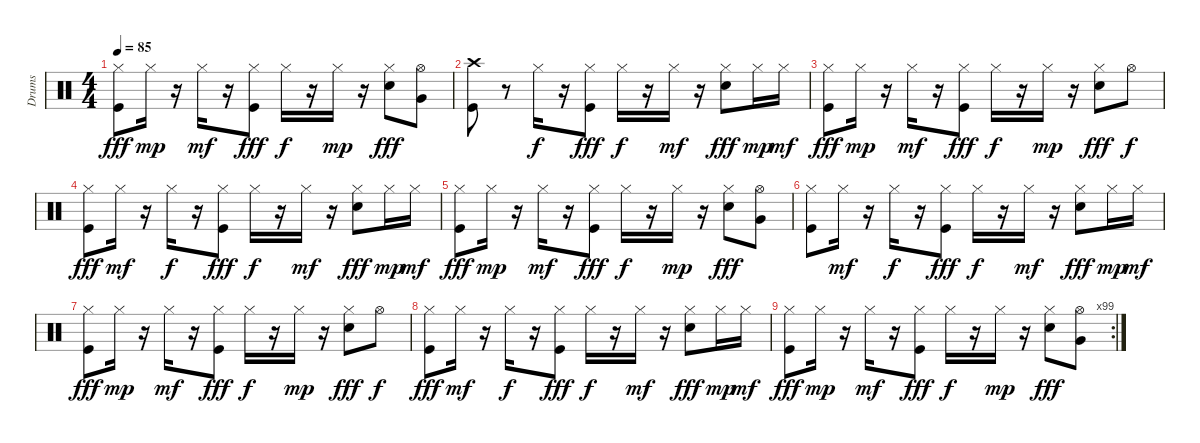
\track ("Drums" "Drums") {instrument percussion}
\staff {score}
\articulation defaults
\ts (4 4)
\tempo 85
\clef neutral
\ks c
("Hi-Hat (closed)" "Kick (hit)").8{dy fff} "Hi-Hat (closed)".16{dy mp} r.16 "Hi-Hat (closed)".16{dy mf} r.16 ("Hi-Hat (closed)" "Kick (hit)").8{dy fff} "Hi-Hat (closed)".16{dy f} r.16 "Hi-Hat (closed)".16{dy mp} r.16 ("Hi-Hat (closed)" "Electric Snare (hit)").8{dy fff} ("Hi-Hat (open)" "Very Low Tom (hit)").8 |
("Crash high (hit)" "Kick (hit)").8 r.8 "Hi-Hat (closed)".16{dy f} r.16 ("Hi-Hat (closed)" "Kick (hit)").8{dy fff} "Hi-Hat (closed)".16{dy f} r.16 "Hi-Hat (closed)".16{dy mf} r.16 ("Hi-Hat (closed)" "Electric Snare (hit)").8{dy fff} "Hi-Hat (closed)".16{dy mp} "Hi-Hat (closed)".16{dy mf} |
("Hi-Hat (closed)" "Kick (hit)").8{dy fff} "Hi-Hat (closed)".16{dy mp} r.16 "Hi-Hat (closed)".16{dy mf} r.16 ("Hi-Hat (closed)" "Kick (hit)").8{dy fff} "Hi-Hat (closed)".16{dy f} r.16 "Hi-Hat (closed)".16{dy mp} r.16 ("Hi-Hat (closed)" "Electric Snare (hit)").8{dy fff} "Hi-Hat (open)".8{dy f} |
("Hi-Hat (closed)" "Kick (hit)").8{dy fff} "Hi-Hat (closed)".16{dy mf} r.16 "Hi-Hat (closed)".16{dy f} r.16 ("Hi-Hat (closed)" "Kick (hit)").8{dy fff} "Hi-Hat (closed)".16{dy f} r.16 "Hi-Hat (closed)".16{dy mf} r.16 ("Hi-Hat (closed)" "Electric Snare (hit)").8{dy fff} "Hi-Hat (closed)".16{dy mp} "Hi-Hat (closed)".16{dy mf} |
("Hi-Hat (closed)" "Kick (hit)").8{dy fff} "Hi-Hat (closed)".16{dy mp} r.16 "Hi-Hat (closed)".16{dy mf} r.16 ("Hi-Hat (closed)" "Kick (hit)").8{dy fff} "Hi-Hat (closed)".16{dy f} r.16 "Hi-Hat (closed)".16{dy mp} r.16 ("Hi-Hat (closed)" "Electric Snare (hit)").8{dy fff} ("Hi-Hat (open)" "Very Low Tom (hit)").8 |
("Hi-Hat (closed)" "Kick (hit)").8 "Hi-Hat (closed)".16{dy mf} r.16 "Hi-Hat (closed)".16{dy f} r.16 ("Hi-Hat (closed)" "Kick (hit)").8{dy fff} "Hi-Hat (closed)".16{dy f} r.16 "Hi-Hat (closed)".16{dy mf} r.16 ("Hi-Hat (closed)" "Electric Snare (hit)").8{dy fff} "Hi-Hat (closed)".16{dy mp} "Hi-Hat (closed)".16{dy mf} |
("Hi-Hat (closed)" "Kick (hit)").8{dy fff} "Hi-Hat (closed)".16{dy mp} r.16 "Hi-Hat (closed)".16{dy mf} r.16 ("Hi-Hat (closed)" "Kick (hit)").8{dy fff} "Hi-Hat (closed)".16{dy f} r.16 "Hi-Hat (closed)".16{dy mp} r.16 ("Hi-Hat (closed)" "Electric Snare (hit)").8{dy fff} "Hi-Hat (open)".8{dy f} |
("Hi-Hat (closed)" "Kick (hit)").8{dy fff} "Hi-Hat (closed)".16{dy mf} r.16 "Hi-Hat (closed)".16{dy f} r.16 ("Hi-Hat (closed)" "Kick (hit)").8{dy fff} "Hi-Hat (closed)".16{dy f} r.16 "Hi-Hat (closed)".16{dy mf} r.16 ("Hi-Hat (closed)" "Electric Snare (hit)").8{dy fff} "Hi-Hat (closed)".16{dy mp} "Hi-Hat (closed)".16{dy mf} |
\rc 99
("Hi-Hat (closed)" "Kick (hit)").8{dy fff} "Hi-Hat (closed)".16{dy mp} r.16 "Hi-Hat (closed)".16{dy mf} r.16 ("Hi-Hat (closed)" "Kick (hit)").8{dy fff} "Hi-Hat (closed)".16{dy f} r.16 "Hi-Hat (closed)".16{dy mp} r.16 ("Hi-Hat (closed)" "Electric Snare (hit)").8{dy fff} ("Hi-Hat (open)" "Very Low Tom (hit)").8
